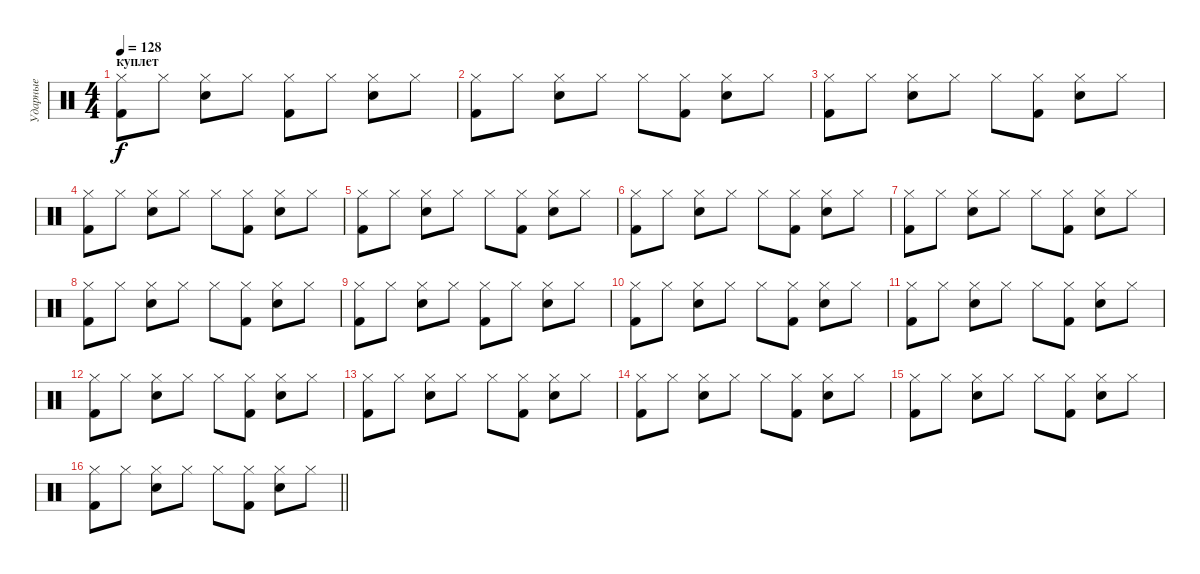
\track ("Ударные" "Ударные") {instrument percussion}
\staff {score}
\articulation defaults
\ts (4 4)
\section ("" "куплет")
\tempo 128
\clef neutral
\ks c
("Hi-Hat (closed)" "Kick (hit) 2").8{dy f} "Hi-Hat (closed)".8 ("Hi-Hat (closed)" "Snare (hit) 2").8 "Hi-Hat (closed)".8 ("Hi-Hat (closed)" "Kick (hit) 2").8 "Hi-Hat (closed)".8 ("Hi-Hat (closed)" "Snare (hit) 2").8 "Hi-Hat (closed)".8 |
("Hi-Hat (closed)" "Kick (hit) 2").8 "Hi-Hat (closed)".8 ("Hi-Hat (closed)" "Snare (hit) 2").8 "Hi-Hat (closed)".8 "Hi-Hat (closed)".8 ("Hi-Hat (closed)" "Kick (hit) 2").8 ("Hi-Hat (closed)" "Snare (hit) 2").8 "Hi-Hat (closed)".8 |
("Hi-Hat (closed)" "Kick (hit) 2").8 "Hi-Hat (closed)".8 ("Hi-Hat (closed)" "Snare (hit) 2").8 "Hi-Hat (closed)".8 "Hi-Hat (closed)".8 ("Hi-Hat (closed)" "Kick (hit) 2").8 ("Hi-Hat (closed)" "Snare (hit) 2").8 "Hi-Hat (closed)".8 |
("Hi-Hat (closed)" "Kick (hit) 2").8 "Hi-Hat (closed)".8 ("Hi-Hat (closed)" "Snare (hit) 2").8 "Hi-Hat (closed)".8 "Hi-Hat (closed)".8 ("Hi-Hat (closed)" "Kick (hit) 2").8 ("Hi-Hat (closed)" "Snare (hit) 2").8 "Hi-Hat (closed)".8 |
("Hi-Hat (closed)" "Kick (hit) 2").8 "Hi-Hat (closed)".8 ("Hi-Hat (closed)" "Snare (hit) 2").8 "Hi-Hat (closed)".8 "Hi-Hat (closed)".8 ("Hi-Hat (closed)" "Kick (hit) 2").8 ("Hi-Hat (closed)" "Snare (hit) 2").8 "Hi-Hat (closed)".8 |
("Hi-Hat (closed)" "Kick (hit) 2").8 "Hi-Hat (closed)".8 ("Hi-Hat (closed)" "Snare (hit) 2").8 "Hi-Hat (closed)".8 "Hi-Hat (closed)".8 ("Hi-Hat (closed)" "Kick (hit) 2").8 ("Hi-Hat (closed)" "Snare (hit) 2").8 "Hi-Hat (closed)".8 |
("Hi-Hat (closed)" "Kick (hit) 2").8 "Hi-Hat (closed)".8 ("Hi-Hat (closed)" "Snare (hit) 2").8 "Hi-Hat (closed)".8 "Hi-Hat (closed)".8 ("Hi-Hat (closed)" "Kick (hit) 2").8 ("Hi-Hat (closed)" "Snare (hit) 2").8 "Hi-Hat (closed)".8 |
("Hi-Hat (closed)" "Kick (hit) 2").8 "Hi-Hat (closed)".8 ("Hi-Hat (closed)" "Snare (hit) 2").8 "Hi-Hat (closed)".8 "Hi-Hat (closed)".8 ("Hi-Hat (closed)" "Kick (hit) 2").8 ("Hi-Hat (closed)" "Snare (hit) 2").8 "Hi-Hat (closed)".8 |
("Hi-Hat (closed)" "Kick (hit) 2").8 "Hi-Hat (closed)".8 ("Hi-Hat (closed)" "Snare (hit) 2").8 "Hi-Hat (closed)".8 ("Hi-Hat (closed)" "Kick (hit) 2").8 "Hi-Hat (closed)".8 ("Hi-Hat (closed)" "Snare (hit) 2").8 "Hi-Hat (closed)".8 |
("Hi-Hat (closed)" "Kick (hit) 2").8 "Hi-Hat (closed)".8 ("Hi-Hat (closed)" "Snare (hit) 2").8 "Hi-Hat (closed)".8 "Hi-Hat (closed)".8 ("Hi-Hat (closed)" "Kick (hit) 2").8 ("Hi-Hat (closed)" "Snare (hit) 2").8 "Hi-Hat (closed)".8 |
("Hi-Hat (closed)" "Kick (hit) 2").8 "Hi-Hat (closed)".8 ("Hi-Hat (closed)" "Snare (hit) 2").8 "Hi-Hat (closed)".8 "Hi-Hat (closed)".8 ("Hi-Hat (closed)" "Kick (hit) 2").8 ("Hi-Hat (closed)" "Snare (hit) 2").8 "Hi-Hat (closed)".8 |
("Hi-Hat (closed)" "Kick (hit) 2").8 "Hi-Hat (closed)".8 ("Hi-Hat (closed)" "Snare (hit) 2").8 "Hi-Hat (closed)".8 "Hi-Hat (closed)".8 ("Hi-Hat (closed)" "Kick (hit) 2").8 ("Hi-Hat (closed)" "Snare (hit) 2").8 "Hi-Hat (closed)".8 |
("Hi-Hat (closed)" "Kick (hit) 2").8 "Hi-Hat (closed)".8 ("Hi-Hat (closed)" "Snare (hit) 2").8 "Hi-Hat (closed)".8 "Hi-Hat (closed)".8 ("Hi-Hat (closed)" "Kick (hit) 2").8 ("Hi-Hat (closed)" "Snare (hit) 2").8 "Hi-Hat (closed)".8 |
("Hi-Hat (closed)" "Kick (hit) 2").8 "Hi-Hat (closed)".8 ("Hi-Hat (closed)" "Snare (hit) 2").8 "Hi-Hat (closed)".8 "Hi-Hat (closed)".8 ("Hi-Hat (closed)" "Kick (hit) 2").8 ("Hi-Hat (closed)" "Snare (hit) 2").8 "Hi-Hat (closed)".8 |
("Hi-Hat (closed)" "Kick (hit) 2").8 "Hi-Hat (closed)".8 ("Hi-Hat (closed)" "Snare (hit) 2").8 "Hi-Hat (closed)".8 "Hi-Hat (closed)".8 ("Hi-Hat (closed)" "Kick (hit) 2").8 ("Hi-Hat (closed)" "Snare (hit) 2").8 "Hi-Hat (closed)".8 |
\barLineRight lightlight
("Hi-Hat (closed)" "Kick (hit) 2").8 "Hi-Hat (closed)".8 ("Hi-Hat (closed)" "Snare (hit) 2").8 "Hi-Hat (closed)".8 "Hi-Hat (closed)".8 ("Hi-Hat (closed)" "Kick (hit) 2").8 ("Hi-Hat (closed)" "Snare (hit) 2").8 "Hi-Hat (closed)".8
